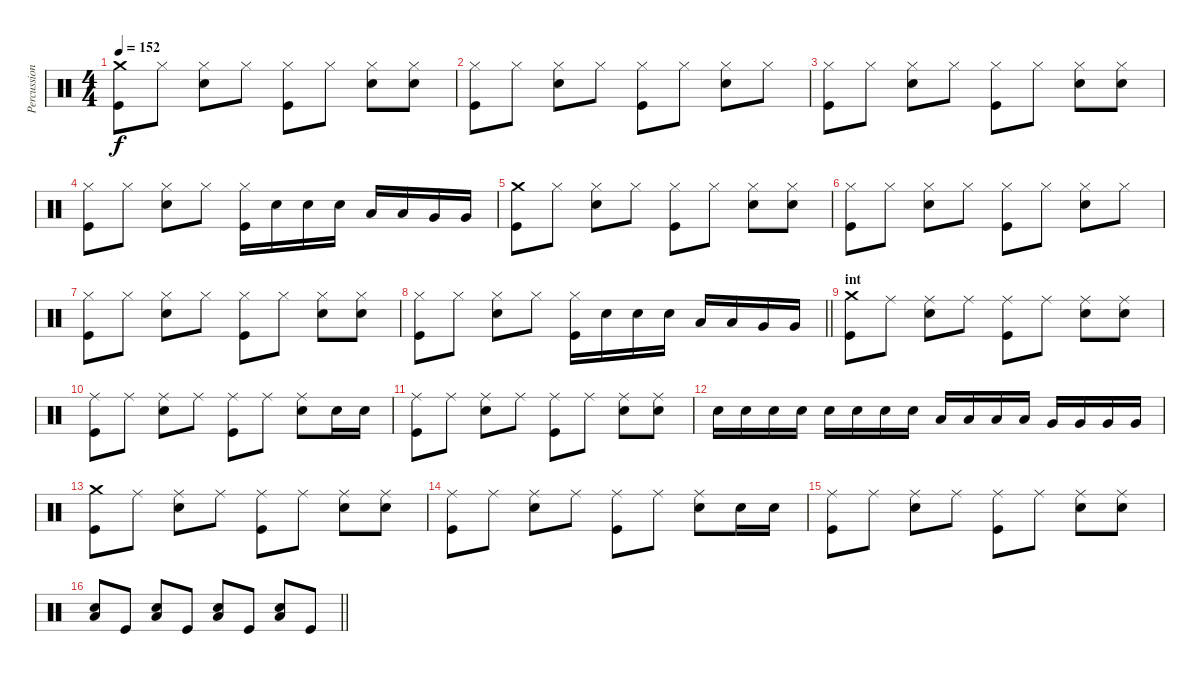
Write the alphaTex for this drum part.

\track ("Percussion" "Percussion") {instrument percussion}
\staff {score}
\articulation defaults
\ts (4 4)
\tempo 152
\clef neutral
\ks c
("Crash medium (hit)" "Kick (hit)").8{dy f} "Hi-Hat (closed)".8 ("Hi-Hat (closed)" "Snare (hit) 2").8 "Hi-Hat (closed)".8 ("Hi-Hat (closed)" "Kick (hit)").8 "Hi-Hat (closed)".8 ("Hi-Hat (closed)" "Snare (hit) 2").8 ("Hi-Hat (closed)" "Snare (hit) 2").8 |
("Hi-Hat (closed)" "Kick (hit)").8 "Hi-Hat (closed)".8 ("Hi-Hat (closed)" "Snare (hit) 2").8 "Hi-Hat (closed)".8 ("Hi-Hat (closed)" "Kick (hit)").8 "Hi-Hat (closed)".8 ("Hi-Hat (closed)" "Snare (hit) 2").8 "Hi-Hat (closed)".8 |
("Hi-Hat (closed)" "Kick (hit)").8 "Hi-Hat (closed)".8 ("Hi-Hat (closed)" "Snare (hit) 2").8 "Hi-Hat (closed)".8 ("Hi-Hat (closed)" "Kick (hit)").8 "Hi-Hat (closed)".8 ("Hi-Hat (closed)" "Snare (hit) 2").8 ("Hi-Hat (closed)" "Snare (hit) 2").8 |
("Hi-Hat (closed)" "Kick (hit)").8 "Hi-Hat (closed)".8 ("Hi-Hat (closed)" "Snare (hit) 2").8 "Hi-Hat (closed)".8 ("Hi-Hat (closed)" "Kick (hit)").16 "Snare (hit) 2".16 "Snare (hit) 2".16 "Snare (hit) 2".16 "Low Tom (hit)".16 "Low Tom (hit)".16 "Very Low Tom (hit)".16 "Very Low Tom (hit)".16 |
("Crash medium (hit)" "Kick (hit)").8 "Hi-Hat (closed)".8 ("Hi-Hat (closed)" "Snare (hit) 2").8 "Hi-Hat (closed)".8 ("Hi-Hat (closed)" "Kick (hit)").8 "Hi-Hat (closed)".8 ("Hi-Hat (closed)" "Snare (hit) 2").8 ("Hi-Hat (closed)" "Snare (hit) 2").8 |
("Hi-Hat (closed)" "Kick (hit)").8 "Hi-Hat (closed)".8 ("Hi-Hat (closed)" "Snare (hit) 2").8 "Hi-Hat (closed)".8 ("Hi-Hat (closed)" "Kick (hit)").8 "Hi-Hat (closed)".8 ("Hi-Hat (closed)" "Snare (hit) 2").8 "Hi-Hat (closed)".8 |
("Hi-Hat (closed)" "Kick (hit)").8 "Hi-Hat (closed)".8 ("Hi-Hat (closed)" "Snare (hit) 2").8 "Hi-Hat (closed)".8 ("Hi-Hat (closed)" "Kick (hit)").8 "Hi-Hat (closed)".8 ("Hi-Hat (closed)" "Snare (hit) 2").8 ("Hi-Hat (closed)" "Snare (hit) 2").8 |
\barLineRight lightlight
("Hi-Hat (closed)" "Kick (hit)").8 "Hi-Hat (closed)".8 ("Hi-Hat (closed)" "Snare (hit) 2").8 "Hi-Hat (closed)".8 ("Hi-Hat (closed)" "Kick (hit)").16 "Snare (hit) 2".16 "Snare (hit) 2".16 "Snare (hit) 2".16 "Low Tom (hit)".16 "Low Tom (hit)".16 "Very Low Tom (hit)".16 "Very Low Tom (hit)".16 |
\section ("" "int")
("Crash medium (hit)" "Kick (hit)").8 "Ride (middle)".8 ("Ride (middle)" "Snare (hit) 2").8 "Ride (middle)".8 ("Ride (middle)" "Kick (hit)").8 "Ride (middle)".8 ("Ride (middle)" "Snare (hit) 2").8 ("Ride (middle)" "Snare (hit) 2").8 |
("Ride (middle)" "Kick (hit)").8 "Ride (middle)".8 ("Ride (middle)" "Snare (hit) 2").8 "Ride (middle)".8 ("Ride (middle)" "Kick (hit)").8 "Ride (middle)".8 ("Ride (middle)" "Snare (hit) 2").8 "Snare (hit) 2".16 "Snare (hit) 2".16 |
("Ride (middle)" "Kick (hit)").8 "Ride (middle)".8 ("Ride (middle)" "Snare (hit) 2").8 "Ride (middle)".8 ("Ride (middle)" "Kick (hit)").8 "Ride (middle)".8 ("Ride (middle)" "Snare (hit) 2").8 ("Ride (middle)" "Snare (hit) 2").8 |
"Snare (hit) 2".16 "Snare (hit) 2".16 "Snare (hit) 2".16 "Snare (hit) 2".16 "Snare (hit) 2".16 "Snare (hit) 2".16 "Snare (hit) 2".16 "Snare (hit) 2".16 "Low Tom (hit)".16 "Low Tom (hit)".16 "Low Tom (hit)".16 "Low Tom (hit)".16 "Very Low Tom (hit)".16 "Very Low Tom (hit)".16 "Very Low Tom (hit)".16 "Very Low Tom (hit)".16 |
("Crash medium (hit)" "Kick (hit)").8 "Ride (middle)".8 ("Ride (middle)" "Snare (hit) 2").8 "Ride (middle)".8 ("Ride (middle)" "Kick (hit)").8 "Ride (middle)".8 ("Ride (middle)" "Snare (hit) 2").8 ("Ride (middle)" "Snare (hit) 2").8 |
("Ride (middle)" "Kick (hit)").8 "Ride (middle)".8 ("Ride (middle)" "Snare (hit) 2").8 "Ride (middle)".8 ("Ride (middle)" "Kick (hit)").8 "Ride (middle)".8 ("Ride (middle)" "Snare (hit) 2").8 "Snare (hit) 2".16 "Snare (hit) 2".16 |
("Ride (middle)" "Kick (hit)").8 "Ride (middle)".8 ("Ride (middle)" "Snare (hit) 2").8 "Ride (middle)".8 ("Ride (middle)" "Kick (hit)").8 "Ride (middle)".8 ("Ride (middle)" "Snare (hit) 2").8 ("Ride (middle)" "Snare (hit) 2").8 |
\barLineRight lightlight
("Low Floor Tom (hit)" "Snare (hit) 2").8 "Kick (hit)".8 ("Low Floor Tom (hit)" "Snare (hit) 2").8 "Kick (hit)".8 ("Low Floor Tom (hit)" "Snare (hit) 2").8 "Kick (hit)".8 ("Low Floor Tom (hit)" "Snare (hit) 2").8 "Kick (hit)".8
